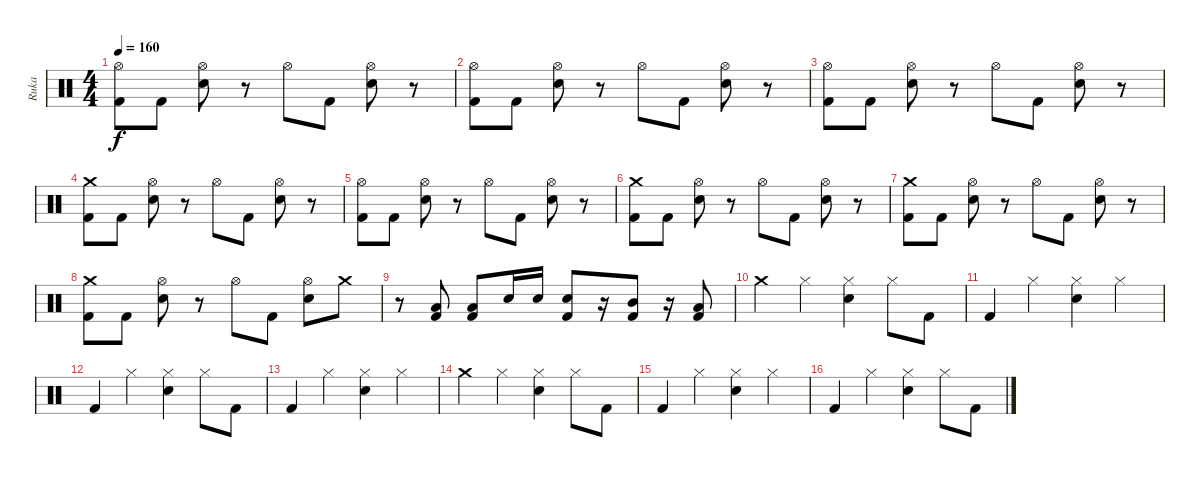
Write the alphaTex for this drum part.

\track ("Ruka" "Ruka") {instrument percussion}
\staff {score}
\articulation defaults
\ts (4 4)
\tempo 160
\clef neutral
\ks c
("Kick (hit) 2" "Hi-Hat (open)").8{dy f} "Kick (hit) 2".8 ("Electric Snare (hit)" "Hi-Hat (open)").8 r.8 "Hi-Hat (open)".8 "Kick (hit) 2".8 ("Electric Snare (hit)" "Hi-Hat (open)").8 r.8 |
("Kick (hit) 2" "Hi-Hat (open)").8 "Kick (hit) 2".8 ("Electric Snare (hit)" "Hi-Hat (open)").8 r.8 "Hi-Hat (open)".8 "Kick (hit) 2".8 ("Electric Snare (hit)" "Hi-Hat (open)").8 r.8 |
("Kick (hit) 2" "Hi-Hat (open)").8 "Kick (hit) 2".8 ("Electric Snare (hit)" "Hi-Hat (open)").8 r.8 "Hi-Hat (open)".8 "Kick (hit) 2".8 ("Electric Snare (hit)" "Hi-Hat (open)").8 r.8 |
("Kick (hit) 2" "Crash medium (hit)").8 "Kick (hit) 2".8 ("Electric Snare (hit)" "Hi-Hat (open)").8 r.8 "Hi-Hat (open)".8 "Kick (hit) 2".8 ("Electric Snare (hit)" "Hi-Hat (open)").8 r.8 |
("Kick (hit) 2" "Hi-Hat (open)").8 "Kick (hit) 2".8 ("Electric Snare (hit)" "Hi-Hat (open)").8 r.8 "Hi-Hat (open)".8 "Kick (hit) 2".8 ("Electric Snare (hit)" "Hi-Hat (open)").8 r.8 |
("Kick (hit) 2" "Crash medium (hit)").8 "Kick (hit) 2".8 ("Electric Snare (hit)" "Hi-Hat (open)").8 r.8 "Hi-Hat (open)".8 "Kick (hit) 2".8 ("Electric Snare (hit)" "Hi-Hat (open)").8 r.8 |
("Kick (hit) 2" "Crash medium (hit)").8 "Kick (hit) 2".8 ("Electric Snare (hit)" "Hi-Hat (open)").8 r.8 "Hi-Hat (open)".8 "Kick (hit) 2".8 ("Electric Snare (hit)" "Hi-Hat (open)").8 r.8 |
("Kick (hit) 2" "Crash medium (hit)").8 "Kick (hit) 2".8 ("Electric Snare (hit)" "Hi-Hat (open)").8 r.8 "Hi-Hat (open)".8 "Kick (hit) 2".8 ("Electric Snare (hit)" "Hi-Hat (open)").8 "Crash medium (hit)".8 |
r.8 ("Kick (hit) 2" "Low Tom (hit)").8 ("Kick (hit) 2" "Low Tom (hit)").8 "Electric Snare (hit)".16 "Electric Snare (hit)".16 ("Kick (hit) 2" "Snare (hit) 2").8 r.16 ("Kick (hit) 2" "Mid Tom (hit)").8 r.16 ("Kick (hit) 2" "Low Tom (hit)").8 |
"Crash medium (hit)".4 "Hi-Hat (closed)".4 ("Snare (hit) 2" "Hi-Hat (closed)").4 "Hi-Hat (closed)".8 "Kick (hit) 2".8 |
"Kick (hit) 2".4 "Hi-Hat (closed)".4 ("Snare (hit) 2" "Hi-Hat (closed)").4 "Hi-Hat (closed)".4 |
"Kick (hit) 2".4 "Hi-Hat (closed)".4 ("Snare (hit) 2" "Hi-Hat (closed)").4 "Hi-Hat (closed)".8 "Kick (hit) 2".8 |
"Kick (hit) 2".4 "Hi-Hat (closed)".4 ("Snare (hit) 2" "Hi-Hat (closed)").4 "Hi-Hat (closed)".4 |
"Crash medium (hit)".4 "Hi-Hat (closed)".4 ("Snare (hit) 2" "Hi-Hat (closed)").4 "Hi-Hat (closed)".8 "Kick (hit) 2".8 |
"Kick (hit) 2".4 "Hi-Hat (closed)".4 ("Snare (hit) 2" "Hi-Hat (closed)").4 "Hi-Hat (closed)".4 |
"Kick (hit) 2".4 "Hi-Hat (closed)".4 ("Snare (hit) 2" "Hi-Hat (closed)").4 "Hi-Hat (closed)".8 "Kick (hit) 2".8
